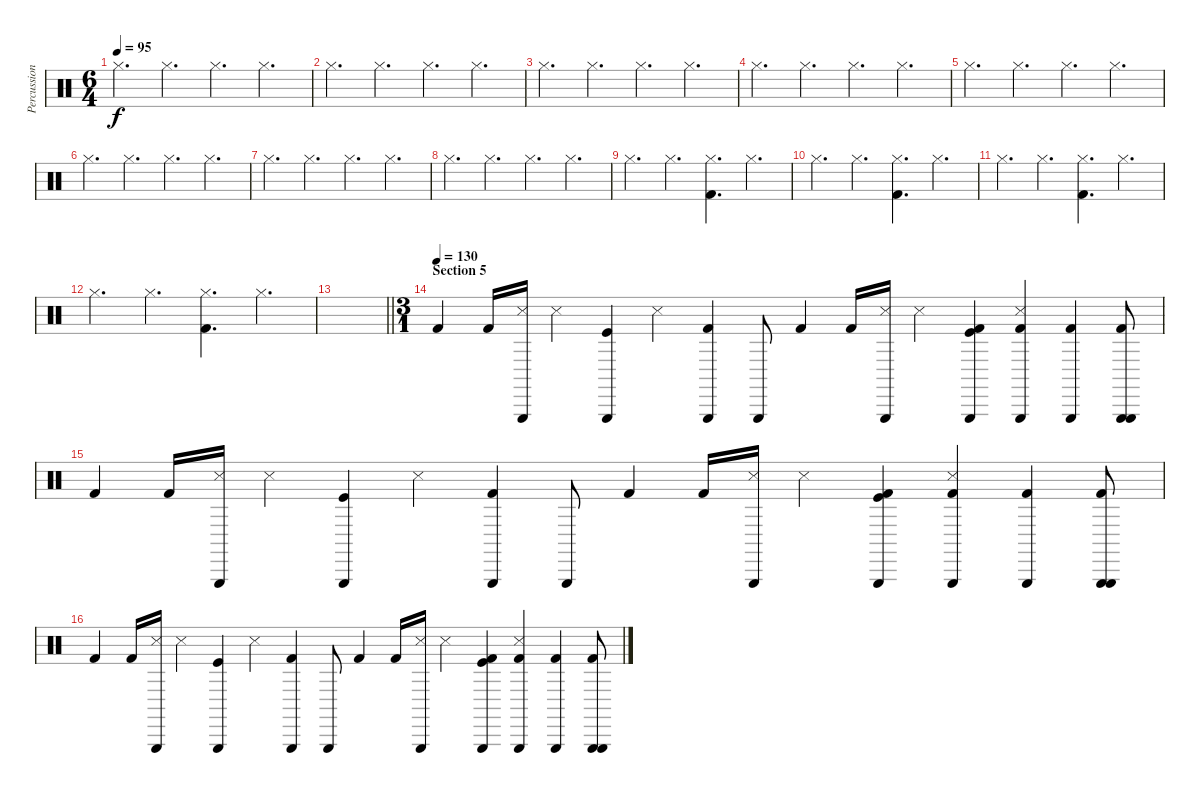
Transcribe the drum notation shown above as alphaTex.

\track ("Percussion" "Percussion") {instrument percussion}
\staff {score}
\articulation defaults
\ts (6 4)
\tempo 95
\clef neutral
\ks c "Hi-Hat (closed)".4{d dy f} "Hi-Hat (closed)".4{d} "Hi-Hat (closed)".4{d} "Hi-Hat (closed)".4{d}
|
"Hi-Hat (closed)".4{d} "Hi-Hat (closed)".4{d} "Hi-Hat (closed)".4{d} "Hi-Hat (closed)".4{d} |
"Hi-Hat (closed)".4{d} "Hi-Hat (closed)".4{d} "Hi-Hat (closed)".4{d} "Hi-Hat (closed)".4{d} |
"Hi-Hat (closed)".4{d} "Hi-Hat (closed)".4{d} "Hi-Hat (closed)".4{d} "Hi-Hat (closed)".4{d} |
"Hi-Hat (closed)".4{d} "Hi-Hat (closed)".4{d} "Hi-Hat (closed)".4{d} "Hi-Hat (closed)".4{d} |
"Hi-Hat (closed)".4{d} "Hi-Hat (closed)".4{d} "Hi-Hat (closed)".4{d} "Hi-Hat (closed)".4{d} |
"Hi-Hat (closed)".4{d} "Hi-Hat (closed)".4{d} "Hi-Hat (closed)".4{d} "Hi-Hat (closed)".4{d} |
"Hi-Hat (closed)".4{d} "Hi-Hat (closed)".4{d} "Hi-Hat (closed)".4{d} "Hi-Hat (closed)".4{d} |
"Hi-Hat (closed)".4{d} "Hi-Hat (closed)".4{d} ("Kick (hit) 2" "Hi-Hat (closed)").4{d} "Hi-Hat (closed)".4{d} |
"Hi-Hat (closed)".4{d} "Hi-Hat (closed)".4{d} ("Kick (hit) 2" "Hi-Hat (closed)").4{d} "Hi-Hat (closed)".4{d} |
"Hi-Hat (closed)".4{d} "Hi-Hat (closed)".4{d} ("Kick (hit) 2" "Hi-Hat (closed)").4{d} "Hi-Hat (closed)".4{d} |
"Hi-Hat (closed)".4{d} "Hi-Hat (closed)".4{d} ("Kick (hit) 2" "Hi-Hat (closed)").4{d} "Hi-Hat (closed)".4{d} |
\barLineRight lightlight
|
\ts (3 1)
\section ("" "Section 5")
\tempo (130)
"Kick (hit) 2".4 "Kick (hit) 2".16 ("Triangle (hit)" "Snare (side stick) 3").16 "Metronome (hit)".4 ("Triangle (hit)" "Kick (hit)").4 "Snare (side stick) 3".4 ("Triangle (hit)" "Kick (hit) 2").4 "Triangle (hit)".8 "Kick (hit) 2".4 "Kick (hit) 2".16 ("Triangle (hit)" "Snare (side stick) 3").16 "Metronome (hit)".4 ("Triangle (hit)" "Kick (hit) 2" "Kick (hit)").4 ("Triangle (hit)" "Kick (hit) 2" "Snare (side stick) 3").4 ("Triangle (hit)" "Kick (hit) 2").4 ("Triangle (hit)" "Kick (hit) 2" "Triangle (hit)").8 |
"Kick (hit) 2".4 "Kick (hit) 2".16 ("Triangle (hit)" "Snare (side stick) 3").16 "Metronome (hit)".4 ("Triangle (hit)" "Kick (hit)").4 "Snare (side stick) 3".4 ("Triangle (hit)" "Kick (hit) 2").4 "Triangle (hit)".8 "Kick (hit) 2".4 "Kick (hit) 2".16 ("Triangle (hit)" "Snare (side stick) 3").16 "Metronome (hit)".4 ("Triangle (hit)" "Kick (hit) 2" "Kick (hit)").4 ("Triangle (hit)" "Kick (hit) 2" "Snare (side stick) 3").4 ("Triangle (hit)" "Kick (hit) 2").4 ("Triangle (hit)" "Kick (hit) 2" "Triangle (hit)").8 |
"Kick (hit) 2".4 "Kick (hit) 2".16 ("Triangle (hit)" "Snare (side stick) 3").16 "Metronome (hit)".4 ("Triangle (hit)" "Kick (hit)").4 "Snare (side stick) 3".4 ("Triangle (hit)" "Kick (hit) 2").4 "Triangle (hit)".8 "Kick (hit) 2".4 "Kick (hit) 2".16 ("Triangle (hit)" "Snare (side stick) 3").16 "Metronome (hit)".4 ("Triangle (hit)" "Kick (hit) 2" "Kick (hit)").4 ("Triangle (hit)" "Kick (hit) 2" "Snare (side stick) 3").4 ("Triangle (hit)" "Kick (hit) 2").4 ("Triangle (hit)" "Kick (hit) 2" "Triangle (hit)").8
